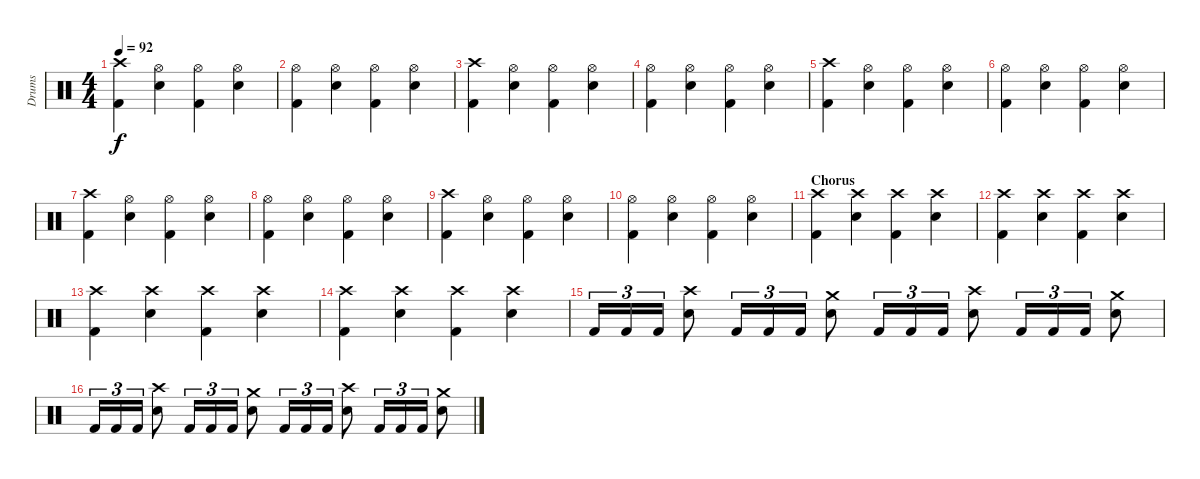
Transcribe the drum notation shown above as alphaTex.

\track ("Drums" "Drums") {instrument percussion}
\staff {score}
\articulation defaults
\ts (4 4)
\tempo 92
\clef neutral
\ks c
("Crash high (hit)" "Kick (hit) 2").4{dy f} ("Hi-Hat (open)" "Electric Snare (hit)").4 ("Hi-Hat (open)" "Kick (hit) 2").4 ("Hi-Hat (open)" "Electric Snare (hit)").4 |
("Hi-Hat (open)" "Kick (hit) 2").4 ("Hi-Hat (open)" "Electric Snare (hit)").4 ("Hi-Hat (open)" "Kick (hit) 2").4 ("Hi-Hat (open)" "Electric Snare (hit)").4 |
("Crash high (hit)" "Kick (hit) 2").4 ("Hi-Hat (open)" "Electric Snare (hit)").4 ("Hi-Hat (open)" "Kick (hit) 2").4 ("Hi-Hat (open)" "Electric Snare (hit)").4 |
("Hi-Hat (open)" "Kick (hit) 2").4 ("Hi-Hat (open)" "Electric Snare (hit)").4 ("Hi-Hat (open)" "Kick (hit) 2").4 ("Hi-Hat (open)" "Electric Snare (hit)").4 |
("Crash high (hit)" "Kick (hit) 2").4 ("Hi-Hat (open)" "Electric Snare (hit)").4 ("Hi-Hat (open)" "Kick (hit) 2").4 ("Hi-Hat (open)" "Electric Snare (hit)").4 |
("Hi-Hat (open)" "Kick (hit) 2").4 ("Hi-Hat (open)" "Electric Snare (hit)").4 ("Hi-Hat (open)" "Kick (hit) 2").4 ("Hi-Hat (open)" "Electric Snare (hit)").4 |
("Crash high (hit)" "Kick (hit) 2").4 ("Hi-Hat (open)" "Electric Snare (hit)").4 ("Hi-Hat (open)" "Kick (hit) 2").4 ("Hi-Hat (open)" "Electric Snare (hit)").4 |
("Hi-Hat (open)" "Kick (hit) 2").4 ("Hi-Hat (open)" "Electric Snare (hit)").4 ("Hi-Hat (open)" "Kick (hit) 2").4 ("Hi-Hat (open)" "Electric Snare (hit)").4 |
("Crash high (hit)" "Kick (hit) 2").4 ("Hi-Hat (open)" "Electric Snare (hit)").4 ("Hi-Hat (open)" "Kick (hit) 2").4 ("Hi-Hat (open)" "Electric Snare (hit)").4 |
("Hi-Hat (open)" "Kick (hit) 2").4 ("Hi-Hat (open)" "Electric Snare (hit)").4 ("Hi-Hat (open)" "Kick (hit) 2").4 ("Hi-Hat (open)" "Electric Snare (hit)").4 |
\section ("" "Chorus")
("Crash high (hit)" "Kick (hit) 2").4 ("Crash high (hit)" "Electric Snare (hit)").4 ("Crash high (hit)" "Kick (hit) 2").4 ("Crash high (hit)" "Electric Snare (hit)").4 |
("Crash high (hit)" "Kick (hit) 2").4 ("Crash high (hit)" "Electric Snare (hit)").4 ("Crash high (hit)" "Kick (hit) 2").4 ("Crash high (hit)" "Electric Snare (hit)").4 |
("Crash high (hit)" "Kick (hit) 2").4 ("Crash high (hit)" "Electric Snare (hit)").4 ("Crash high (hit)" "Kick (hit) 2").4 ("Crash high (hit)" "Electric Snare (hit)").4 |
("Crash high (hit)" "Kick (hit) 2").4 ("Crash high (hit)" "Electric Snare (hit)").4 ("Crash high (hit)" "Kick (hit) 2").4 ("Crash high (hit)" "Electric Snare (hit)").4 |
"Kick (hit) 2".16{tu (3 2)} "Kick (hit) 2".16{tu (3 2)} "Kick (hit) 2".16{tu (3 2)} ("Electric Snare (hit)" "Crash high (hit)").8 "Kick (hit) 2".16{tu (3 2)} "Kick (hit) 2".16{tu (3 2)} "Kick (hit) 2".16{tu (3 2)} ("Electric Snare (hit)" "Crash medium (hit)").8 "Kick (hit) 2".16{tu (3 2)} "Kick (hit) 2".16{tu (3 2)} "Kick (hit) 2".16{tu (3 2)} ("Electric Snare (hit)" "Crash high (hit)").8 "Kick (hit) 2".16{tu (3 2)} "Kick (hit) 2".16{tu (3 2)} "Kick (hit) 2".16{tu (3 2)} ("Electric Snare (hit)" "Crash medium (hit)").8 |
"Kick (hit) 2".16{tu (3 2)} "Kick (hit) 2".16{tu (3 2)} "Kick (hit) 2".16{tu (3 2)} ("Electric Snare (hit)" "Crash high (hit)").8 "Kick (hit) 2".16{tu (3 2)} "Kick (hit) 2".16{tu (3 2)} "Kick (hit) 2".16{tu (3 2)} ("Electric Snare (hit)" "Crash medium (hit)").8 "Kick (hit) 2".16{tu (3 2)} "Kick (hit) 2".16{tu (3 2)} "Kick (hit) 2".16{tu (3 2)} ("Electric Snare (hit)" "Crash high (hit)").8 "Kick (hit) 2".16{tu (3 2)} "Kick (hit) 2".16{tu (3 2)} "Kick (hit) 2".16{tu (3 2)} ("Electric Snare (hit)" "Crash medium (hit)").8
